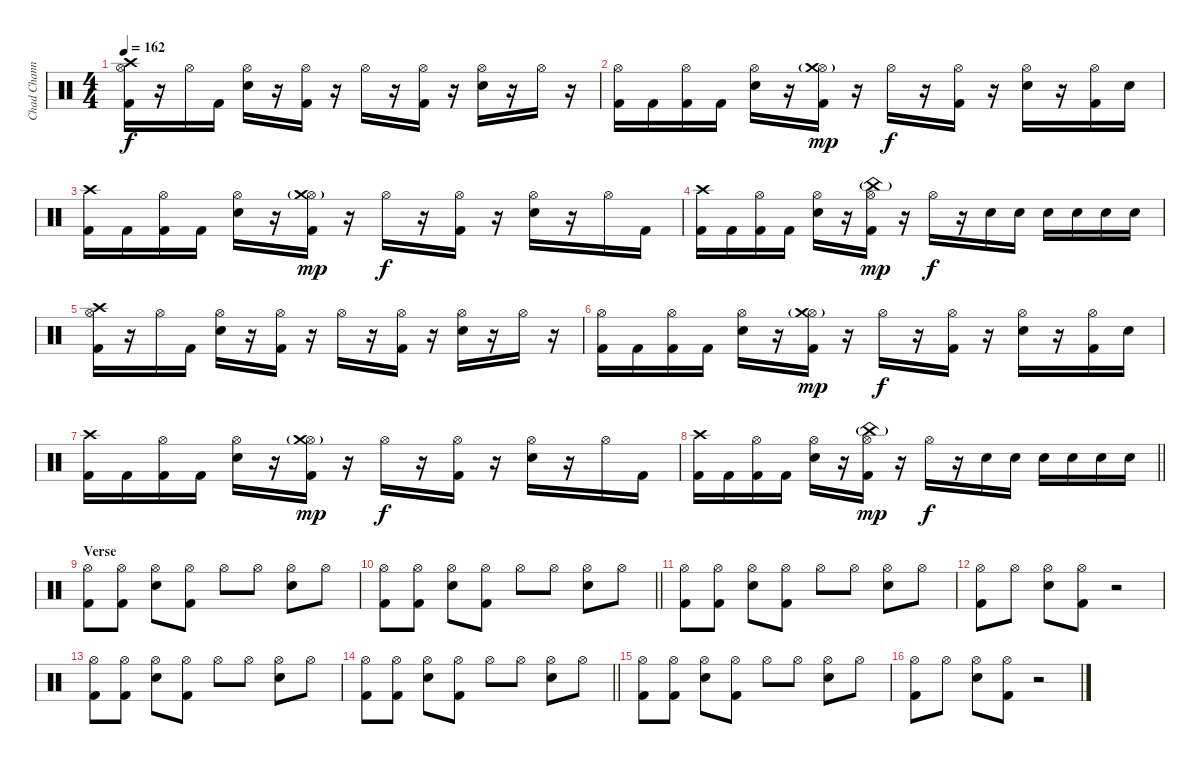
\track ("Chad Channing" "Chad Chann") {instrument percussion}
\staff {score}
\articulation defaults
\ts (4 4)
\tempo 162
\clef neutral
\ks c
("Crash high (hit)" "Hi-Hat (open)" "Kick (hit) 2").16{dy f} r.16 "Hi-Hat (open)".16 "Kick (hit) 2".16 ("Hi-Hat (open)" "Snare (hit) 2").16 r.16 ("Hi-Hat (open)" "Kick (hit) 2").16 r.16 "Hi-Hat (open)".16 r.16 ("Hi-Hat (open)" "Kick (hit) 2").16 r.16 ("Hi-Hat (open)" "Snare (hit) 2").16 r.16 "Hi-Hat (open)".16 r.16 |
("Hi-Hat (open)" "Kick (hit) 2").16 "Kick (hit) 2".16 ("Hi-Hat (open)" "Kick (hit) 2").16 "Kick (hit) 2".16 ("Hi-Hat (open)" "Snare (hit) 2").16 r.16 ("Hi-Hat (open)" "Crash medium (hit)"{g} "Kick (hit) 2").16{dy mp} r.16 "Hi-Hat (open)".16{dy f} r.16 ("Hi-Hat (open)" "Kick (hit) 2").16 r.16 ("Hi-Hat (open)" "Snare (hit) 2").16 r.16 ("Hi-Hat (open)" "Kick (hit) 2").16 "Snare (hit) 2".16 |
("Crash high (hit)" "Kick (hit) 2").16 "Kick (hit) 2".16 ("Hi-Hat (open)" "Kick (hit) 2").16 "Kick (hit) 2".16 ("Hi-Hat (open)" "Snare (hit) 2").16 r.16 ("Hi-Hat (open)" "Crash medium (hit)"{g} "Kick (hit) 2").16{dy mp} r.16 "Hi-Hat (open)".16{dy f} r.16 ("Hi-Hat (open)" "Kick (hit) 2").16 r.16 ("Hi-Hat (open)" "Snare (hit) 2").16 r.16 "Hi-Hat (open)".16 "Kick (hit) 2".16 |
("Crash high (hit)" "Kick (hit) 2").16 "Kick (hit) 2".16 ("Hi-Hat (open)" "Kick (hit) 2").16 "Kick (hit) 2".16 ("Hi-Hat (open)" "Snare (hit) 2").16 r.16 ("Hi-Hat (open)" "China (hit)"{g} "Kick (hit) 2").16{dy mp} r.16 "Hi-Hat (open)".16{dy f} r.16 "Snare (hit) 2".16 "Snare (hit) 2".16 "Snare (hit) 2".16 "Snare (hit) 2".16 "Snare (hit) 2".16 "Snare (hit) 2".16 |
("Crash high (hit)" "Hi-Hat (open)" "Kick (hit) 2").16 r.16 "Hi-Hat (open)".16 "Kick (hit) 2".16 ("Hi-Hat (open)" "Snare (hit) 2").16 r.16 ("Hi-Hat (open)" "Kick (hit) 2").16 r.16 "Hi-Hat (open)".16 r.16 ("Hi-Hat (open)" "Kick (hit) 2").16 r.16 ("Hi-Hat (open)" "Snare (hit) 2").16 r.16 "Hi-Hat (open)".16 r.16 |
("Hi-Hat (open)" "Kick (hit) 2").16 "Kick (hit) 2".16 ("Hi-Hat (open)" "Kick (hit) 2").16 "Kick (hit) 2".16 ("Hi-Hat (open)" "Snare (hit) 2").16 r.16 ("Hi-Hat (open)" "Crash medium (hit)"{g} "Kick (hit) 2").16{dy mp} r.16 "Hi-Hat (open)".16{dy f} r.16 ("Hi-Hat (open)" "Kick (hit) 2").16 r.16 ("Hi-Hat (open)" "Snare (hit) 2").16 r.16 ("Hi-Hat (open)" "Kick (hit) 2").16 "Snare (hit) 2".16 |
("Crash high (hit)" "Kick (hit) 2").16 "Kick (hit) 2".16 ("Hi-Hat (open)" "Kick (hit) 2").16 "Kick (hit) 2".16 ("Hi-Hat (open)" "Snare (hit) 2").16 r.16 ("Hi-Hat (open)" "Crash medium (hit)"{g} "Kick (hit) 2").16{dy mp} r.16 "Hi-Hat (open)".16{dy f} r.16 ("Hi-Hat (open)" "Kick (hit) 2").16 r.16 ("Hi-Hat (open)" "Snare (hit) 2").16 r.16 "Hi-Hat (open)".16 "Kick (hit) 2".16 |
\barLineRight lightlight
("Crash high (hit)" "Kick (hit) 2").16 "Kick (hit) 2".16 ("Hi-Hat (open)" "Kick (hit) 2").16 "Kick (hit) 2".16 ("Hi-Hat (open)" "Snare (hit) 2").16 r.16 ("Hi-Hat (open)" "China (hit)"{g} "Kick (hit) 2").16{dy mp} r.16 "Hi-Hat (open)".16{dy f} r.16 "Snare (hit) 2".16 "Snare (hit) 2".16 "Snare (hit) 2".16 "Snare (hit) 2".16 "Snare (hit) 2".16 "Snare (hit) 2".16 |
\section ("" "Verse")
("Hi-Hat (open)" "Kick (hit) 2").8 ("Hi-Hat (open)" "Kick (hit) 2").8 ("Hi-Hat (open)" "Snare (hit) 2").8 ("Hi-Hat (open)" "Kick (hit) 2").8 "Hi-Hat (open)".8 "Hi-Hat (open)".8 ("Hi-Hat (open)" "Snare (hit) 2").8 "Hi-Hat (open)".8 |
\barLineRight lightlight
("Hi-Hat (open)" "Kick (hit) 2").8 ("Hi-Hat (open)" "Kick (hit) 2").8 ("Hi-Hat (open)" "Snare (hit) 2").8 ("Hi-Hat (open)" "Kick (hit) 2").8 "Hi-Hat (open)".8 "Hi-Hat (open)".8 ("Hi-Hat (open)" "Snare (hit) 2").8 "Hi-Hat (open)".8 |
("Hi-Hat (open)" "Kick (hit) 2").8 ("Hi-Hat (open)" "Kick (hit) 2").8 ("Hi-Hat (open)" "Snare (hit) 2").8 ("Hi-Hat (open)" "Kick (hit) 2").8 "Hi-Hat (open)".8 "Hi-Hat (open)".8 ("Hi-Hat (open)" "Snare (hit) 2").8 "Hi-Hat (open)".8 |
("Hi-Hat (open)" "Kick (hit) 2").8 "Hi-Hat (open)".8 ("Hi-Hat (open)" "Snare (hit) 2").8 ("Hi-Hat (open)" "Kick (hit) 2").8 r.2 |
("Hi-Hat (open)" "Kick (hit) 2").8 ("Hi-Hat (open)" "Kick (hit) 2").8 ("Hi-Hat (open)" "Snare (hit) 2").8 ("Hi-Hat (open)" "Kick (hit) 2").8 "Hi-Hat (open)".8 "Hi-Hat (open)".8 ("Hi-Hat (open)" "Snare (hit) 2").8 "Hi-Hat (open)".8 |
\barLineRight lightlight
("Hi-Hat (open)" "Kick (hit) 2").8 ("Hi-Hat (open)" "Kick (hit) 2").8 ("Hi-Hat (open)" "Snare (hit) 2").8 ("Hi-Hat (open)" "Kick (hit) 2").8 "Hi-Hat (open)".8 "Hi-Hat (open)".8 ("Hi-Hat (open)" "Snare (hit) 2").8 "Hi-Hat (open)".8 |
("Hi-Hat (open)" "Kick (hit) 2").8 ("Hi-Hat (open)" "Kick (hit) 2").8 ("Hi-Hat (open)" "Snare (hit) 2").8 ("Hi-Hat (open)" "Kick (hit) 2").8 "Hi-Hat (open)".8 "Hi-Hat (open)".8 ("Hi-Hat (open)" "Snare (hit) 2").8 "Hi-Hat (open)".8 |
("Hi-Hat (open)" "Kick (hit) 2").8 "Hi-Hat (open)".8 ("Hi-Hat (open)" "Snare (hit) 2").8 ("Hi-Hat (open)" "Kick (hit) 2").8 r.2
